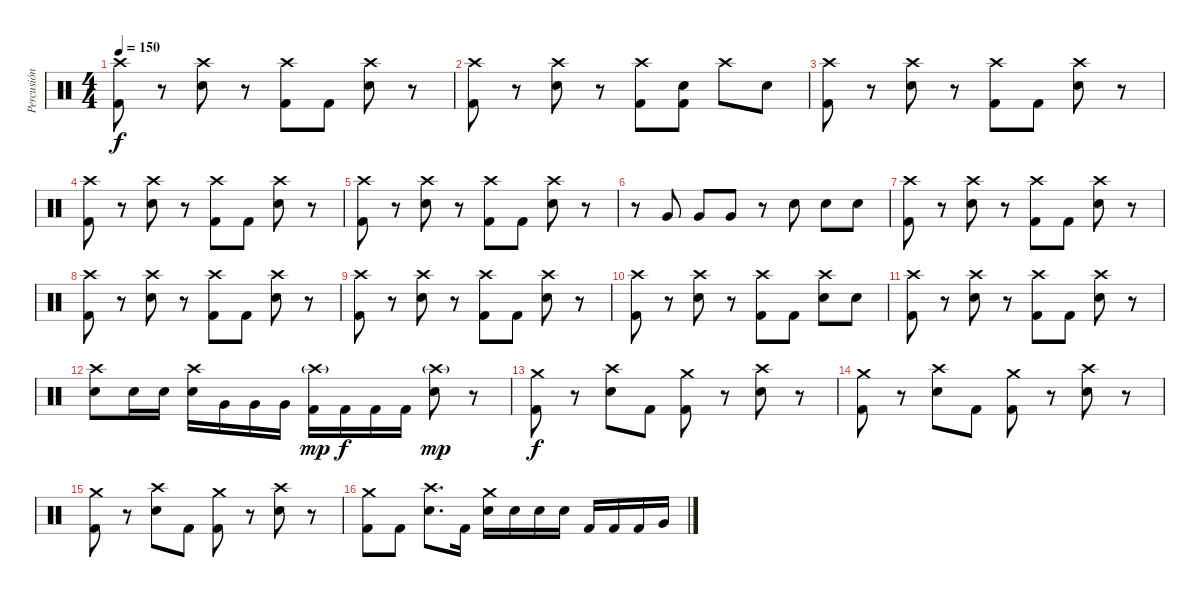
\track ("Percusión" "Percusión") {instrument percussion}
\staff {score}
\articulation defaults
\ts (4 4)
\tempo 150
\clef neutral
\ks c
("Crash high (hit)" "Kick (hit) 2").8{dy f} r.8 ("Crash high (hit)" "Snare (hit) 2").8 r.8 ("Crash high (hit)" "Kick (hit) 2").8 "Kick (hit) 2".8 ("Crash high (hit)" "Snare (hit) 2").8 r.8 |
("Crash high (hit)" "Kick (hit) 2").8 r.8 ("Crash high (hit)" "Snare (hit) 2").8 r.8 ("Crash high (hit)" "Kick (hit) 2").8 ("Snare (hit) 2" "Kick (hit) 2").8 "Crash high (hit)".8 "Snare (hit) 2".8 |
("Crash high (hit)" "Kick (hit) 2").8 r.8 ("Crash high (hit)" "Snare (hit) 2").8 r.8 ("Crash high (hit)" "Kick (hit) 2").8 "Kick (hit) 2".8 ("Crash high (hit)" "Snare (hit) 2").8 r.8 |
("Crash high (hit)" "Kick (hit) 2").8 r.8 ("Crash high (hit)" "Snare (hit) 2").8 r.8 ("Crash high (hit)" "Kick (hit) 2").8 "Kick (hit) 2".8 ("Crash high (hit)" "Snare (hit) 2").8 r.8 |
("Crash high (hit)" "Kick (hit) 2").8 r.8 ("Crash high (hit)" "Snare (hit) 2").8 r.8 ("Crash high (hit)" "Kick (hit) 2").8 "Kick (hit) 2".8 ("Crash high (hit)" "Snare (hit) 2").8 r.8 |
r.8 "Very Low Tom (hit)".8 "Very Low Tom (hit)".8 "Very Low Tom (hit)".8 r.8 "Snare (hit) 2".8 "Snare (hit) 2".8 "Snare (hit) 2".8 |
("Crash high (hit)" "Kick (hit) 2").8 r.8 ("Crash high (hit)" "Snare (hit) 2").8 r.8 ("Crash high (hit)" "Kick (hit) 2").8 "Kick (hit) 2".8 ("Crash high (hit)" "Snare (hit) 2").8 r.8 |
("Crash high (hit)" "Kick (hit) 2").8 r.8 ("Crash high (hit)" "Snare (hit) 2").8 r.8 ("Crash high (hit)" "Kick (hit) 2").8 "Kick (hit) 2".8 ("Crash high (hit)" "Snare (hit) 2").8 r.8 |
("Crash high (hit)" "Kick (hit) 2").8 r.8 ("Crash high (hit)" "Snare (hit) 2").8 r.8 ("Crash high (hit)" "Kick (hit) 2").8 "Kick (hit) 2".8 ("Crash high (hit)" "Snare (hit) 2").8 r.8 |
("Crash high (hit)" "Kick (hit) 2").8 r.8 ("Crash high (hit)" "Snare (hit) 2").8 r.8 ("Crash high (hit)" "Kick (hit) 2").8 "Kick (hit) 2".8 ("Crash high (hit)" "Snare (hit) 2").8 "Snare (hit) 2".8 |
("Crash high (hit)" "Kick (hit) 2").8 r.8 ("Crash high (hit)" "Snare (hit) 2").8 r.8 ("Crash high (hit)" "Kick (hit) 2").8 "Kick (hit) 2".8 ("Crash high (hit)" "Snare (hit) 2").8 r.8 |
("Crash high (hit)" "Snare (hit) 2").8 "Snare (hit) 2".16 "Snare (hit) 2".16 ("Crash high (hit)" "Snare (hit) 2").16 "Very Low Tom (hit)".16 "Very Low Tom (hit)".16 "Very Low Tom (hit)".16 ("Crash high (hit)"{g} "Kick (hit) 2").16{dy mp} "Kick (hit) 2".16{dy f} "Kick (hit) 2".16 "Kick (hit) 2".16 ("Crash high (hit)"{g} "Snare (hit) 2").8{dy mp} r.8 |
("Crash medium (hit)" "Kick (hit) 2").8{dy f} r.8 ("Crash high (hit)" "Snare (hit) 2").8 "Kick (hit) 2".8 ("Crash medium (hit)" "Kick (hit) 2").8 r.8 ("Crash high (hit)" "Snare (hit) 2").8 r.8 |
("Crash medium (hit)" "Kick (hit) 2").8 r.8 ("Crash high (hit)" "Snare (hit) 2").8 "Kick (hit) 2".8 ("Crash medium (hit)" "Kick (hit) 2").8 r.8 ("Crash high (hit)" "Snare (hit) 2").8 r.8 |
("Crash medium (hit)" "Kick (hit) 2").8 r.8 ("Crash high (hit)" "Snare (hit) 2").8 "Kick (hit) 2".8 ("Crash medium (hit)" "Kick (hit) 2").8 r.8 ("Crash high (hit)" "Snare (hit) 2").8 r.8 |
("Crash medium (hit)" "Kick (hit) 2").8 "Kick (hit) 2".8 ("Crash high (hit)" "Snare (hit) 2").8{d} "Kick (hit) 2".16 ("Crash medium (hit)" "Snare (hit) 2").16 "Snare (hit) 2".16 "Snare (hit) 2".16 "Snare (hit) 2".16 "Kick (hit) 2".16 "Kick (hit) 2".16 "Kick (hit) 2".16 "Very Low Tom (hit)".16
